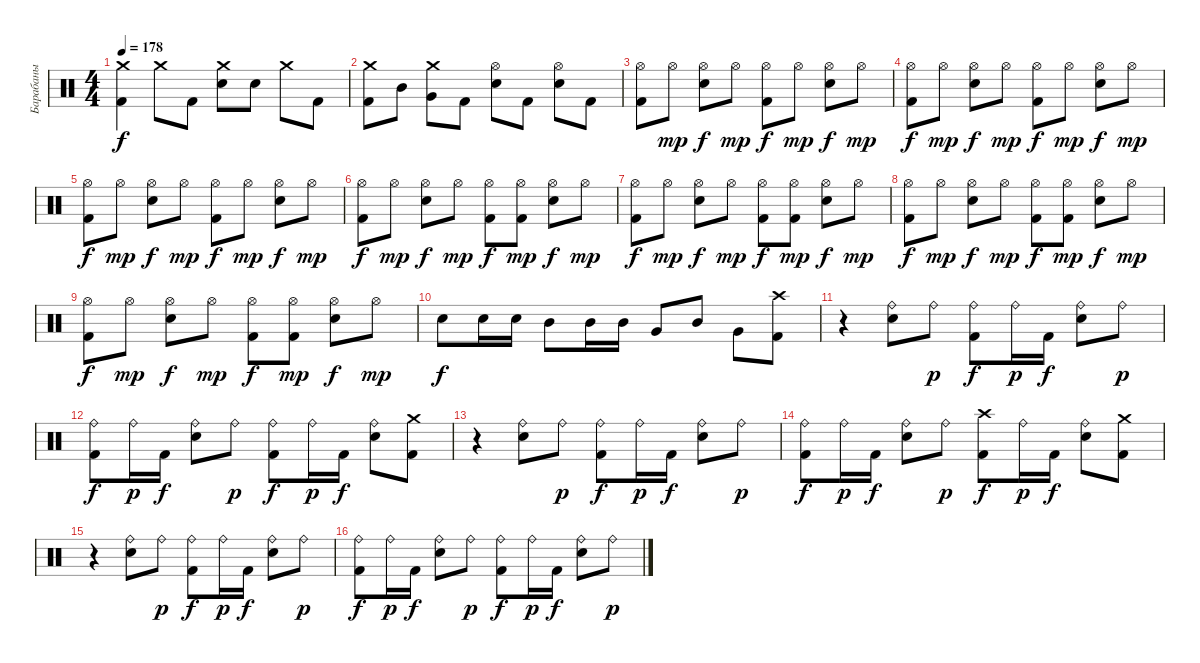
\track ("Барабаны" "Барабаны") {instrument percussion}
\staff {score}
\articulation defaults
\ts (4 4)
\tempo 178
\clef neutral
\ks c
("Crash medium (hit)" "Kick (hit) 2").4{dy f} "Crash medium (hit)".8 "Kick (hit) 2".8 ("Crash medium (hit)" "Electric Snare (hit)").8 "Electric Snare (hit)".8 "Crash medium (hit)".8 "Kick (hit) 2".8 |
("Crash medium (hit)" "Kick (hit) 2").8 "Mid Tom (hit)".8 ("Crash medium (hit)" "Very Low Tom (hit)").8 "Kick (hit) 2".8 ("Hi-Hat (open)" "Electric Snare (hit)").8 "Kick (hit) 2".8 ("Hi-Hat (open)" "Electric Snare (hit)").8 "Kick (hit) 2".8 |
("Hi-Hat (open)" "Kick (hit) 2").8 "Hi-Hat (open)".8{dy mp} ("Hi-Hat (open)" "Electric Snare (hit)").8{dy f} "Hi-Hat (open)".8{dy mp} ("Hi-Hat (open)" "Kick (hit) 2").8{dy f} "Hi-Hat (open)".8{dy mp} ("Hi-Hat (open)" "Electric Snare (hit)").8{dy f} "Hi-Hat (open)".8{dy mp} |
("Hi-Hat (open)" "Kick (hit) 2").8{dy f} "Hi-Hat (open)".8{dy mp} ("Hi-Hat (open)" "Electric Snare (hit)").8{dy f} "Hi-Hat (open)".8{dy mp} ("Hi-Hat (open)" "Kick (hit) 2").8{dy f} "Hi-Hat (open)".8{dy mp} ("Hi-Hat (open)" "Electric Snare (hit)").8{dy f} "Hi-Hat (open)".8{dy mp} |
("Hi-Hat (open)" "Kick (hit) 2").8{dy f} "Hi-Hat (open)".8{dy mp} ("Hi-Hat (open)" "Electric Snare (hit)").8{dy f} "Hi-Hat (open)".8{dy mp} ("Hi-Hat (open)" "Kick (hit) 2").8{dy f} "Hi-Hat (open)".8{dy mp} ("Hi-Hat (open)" "Electric Snare (hit)").8{dy f} "Hi-Hat (open)".8{dy mp} |
("Hi-Hat (open)" "Kick (hit) 2").8{dy f} "Hi-Hat (open)".8{dy mp} ("Hi-Hat (open)" "Electric Snare (hit)").8{dy f} "Hi-Hat (open)".8{dy mp} ("Hi-Hat (open)" "Kick (hit) 2").8{dy f} ("Hi-Hat (open)" "Kick (hit) 2").8{dy mp} ("Hi-Hat (open)" "Electric Snare (hit)").8{dy f} "Hi-Hat (open)".8{dy mp} |
("Hi-Hat (open)" "Kick (hit) 2").8{dy f} "Hi-Hat (open)".8{dy mp} ("Hi-Hat (open)" "Electric Snare (hit)").8{dy f} "Hi-Hat (open)".8{dy mp} ("Hi-Hat (open)" "Kick (hit) 2").8{dy f} ("Hi-Hat (open)" "Kick (hit) 2").8{dy mp} ("Hi-Hat (open)" "Electric Snare (hit)").8{dy f} "Hi-Hat (open)".8{dy mp} |
("Hi-Hat (open)" "Kick (hit) 2").8{dy f} "Hi-Hat (open)".8{dy mp} ("Hi-Hat (open)" "Electric Snare (hit)").8{dy f} "Hi-Hat (open)".8{dy mp} ("Hi-Hat (open)" "Kick (hit) 2").8{dy f} ("Hi-Hat (open)" "Kick (hit) 2").8{dy mp} ("Hi-Hat (open)" "Electric Snare (hit)").8{dy f} "Hi-Hat (open)".8{dy mp} |
("Hi-Hat (open)" "Kick (hit) 2").8{dy f} "Hi-Hat (open)".8{dy mp} ("Hi-Hat (open)" "Electric Snare (hit)").8{dy f} "Hi-Hat (open)".8{dy mp} ("Hi-Hat (open)" "Kick (hit) 2").8{dy f} ("Hi-Hat (open)" "Kick (hit) 2").8{dy mp} ("Hi-Hat (open)" "Electric Snare (hit)").8{dy f} "Hi-Hat (open)".8{dy mp} |
"Electric Snare (hit)".8{dy f} "Electric Snare (hit)".16 "Electric Snare (hit)".16 "Mid Tom (hit)".8 "Mid Tom (hit)".16 "Mid Tom (hit)".16 "Very Low Tom (hit)".8 "Mid Tom (hit)".8 "Very Low Tom (hit)".8 ("Crash high (hit)" "Kick (hit) 2").8 |
r.4 ("Ride (bell)" "Electric Snare (hit)").8 "Ride (bell)".8{dy p} ("Ride (bell)" "Kick (hit) 2").8{dy f} "Ride (bell)".16{dy p} "Kick (hit) 2".16{dy f} ("Ride (bell)" "Electric Snare (hit)").8 "Ride (bell)".8{dy p} |
("Ride (bell)" "Kick (hit) 2").8{dy f} "Ride (bell)".16{dy p} "Kick (hit) 2".16{dy f} ("Ride (bell)" "Electric Snare (hit)").8 "Ride (bell)".8{dy p} ("Ride (bell)" "Kick (hit) 2").8{dy f} "Ride (bell)".16{dy p} "Kick (hit) 2".16{dy f} ("Ride (bell)" "Electric Snare (hit)").8 ("Crash medium (hit)" "Kick (hit) 2").8 |
r.4 ("Ride (bell)" "Electric Snare (hit)").8 "Ride (bell)".8{dy p} ("Ride (bell)" "Kick (hit) 2").8{dy f} "Ride (bell)".16{dy p} "Kick (hit) 2".16{dy f} ("Ride (bell)" "Electric Snare (hit)").8 "Ride (bell)".8{dy p} |
("Ride (bell)" "Kick (hit) 2").8{dy f} "Ride (bell)".16{dy p} "Kick (hit) 2".16{dy f} ("Ride (bell)" "Electric Snare (hit)").8 "Ride (bell)".8{dy p} ("Crash high (hit)" "Kick (hit) 2").8{dy f} "Ride (bell)".16{dy p} "Kick (hit) 2".16{dy f} ("Ride (bell)" "Electric Snare (hit)").8 ("Crash medium (hit)" "Kick (hit) 2").8 |
r.4 ("Ride (bell)" "Electric Snare (hit)").8 "Ride (bell)".8{dy p} ("Ride (bell)" "Kick (hit) 2").8{dy f} "Ride (bell)".16{dy p} "Kick (hit) 2".16{dy f} ("Ride (bell)" "Electric Snare (hit)").8 "Ride (bell)".8{dy p} |
("Ride (bell)" "Kick (hit) 2").8{dy f} "Ride (bell)".16{dy p} "Kick (hit) 2".16{dy f} ("Ride (bell)" "Electric Snare (hit)").8 "Ride (bell)".8{dy p} ("Ride (bell)" "Kick (hit) 2").8{dy f} "Ride (bell)".16{dy p} "Kick (hit) 2".16{dy f} ("Ride (bell)" "Electric Snare (hit)").8 "Ride (bell)".8{dy p}
